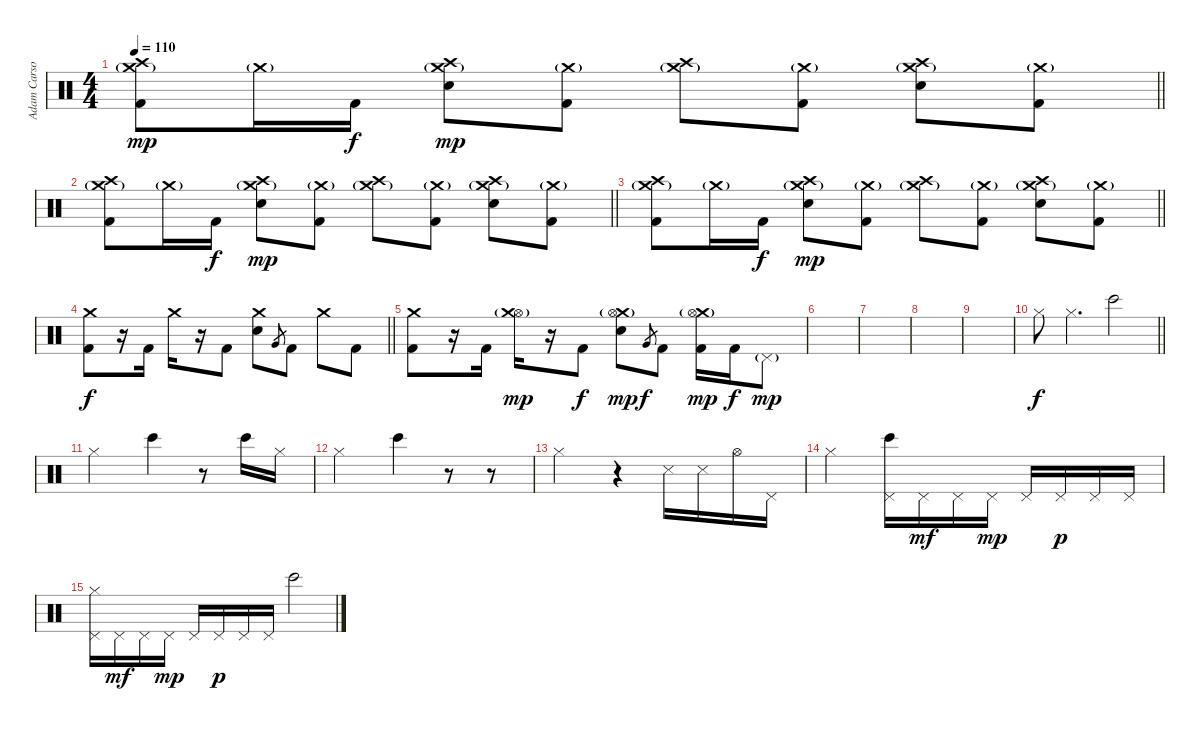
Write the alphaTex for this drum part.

\track ("Adam Carson" "Adam Carso") {instrument percussion}
\staff {score}
\articulation defaults
\ts (4 4)
\tempo 110
\clef neutral
\barLineRight lightlight
\ks c
("Crash high (hit)" "Crash medium (hit)"{g} "Kick (hit) 2").8{dy mp} "Crash medium (hit)"{g}.16 "Kick (hit) 2".16{dy f} ("Crash high (hit)" "Crash medium (hit)"{g} "Snare (hit) 2").8{dy mp} ("Crash medium (hit)"{g} "Kick (hit) 2").8 ("Crash high (hit)" "Crash medium (hit)"{g}).8 ("Crash medium (hit)"{g} "Kick (hit) 2").8 ("Crash high (hit)" "Crash medium (hit)"{g} "Snare (hit) 2").8 ("Crash medium (hit)"{g} "Kick (hit) 2").8 |
\barLineRight lightlight
("Crash high (hit)" "Crash medium (hit)"{g} "Kick (hit) 2").8 "Crash medium (hit)"{g}.16 "Kick (hit) 2".16{dy f} ("Crash high (hit)" "Crash medium (hit)"{g} "Snare (hit) 2").8{dy mp} ("Crash medium (hit)"{g} "Kick (hit) 2").8 ("Crash high (hit)" "Crash medium (hit)"{g}).8 ("Crash medium (hit)"{g} "Kick (hit) 2").8 ("Crash high (hit)" "Crash medium (hit)"{g} "Snare (hit) 2").8 ("Crash medium (hit)"{g} "Kick (hit) 2").8 |
\barLineRight lightlight
("Crash high (hit)" "Crash medium (hit)"{g} "Kick (hit) 2").8 "Crash medium (hit)"{g}.16 "Kick (hit) 2".16{dy f} ("Crash high (hit)" "Crash medium (hit)"{g} "Snare (hit) 2").8{dy mp} ("Crash medium (hit)"{g} "Kick (hit) 2").8 ("Crash high (hit)" "Crash medium (hit)"{g}).8 ("Crash medium (hit)"{g} "Kick (hit) 2").8 ("Crash high (hit)" "Crash medium (hit)"{g} "Snare (hit) 2").8 ("Crash medium (hit)"{g} "Kick (hit) 2").8 |
\barLineRight lightlight
("Crash medium (hit)" "Kick (hit) 2").8{dy f} r.16 "Kick (hit) 2".16 "Crash medium (hit)".16 r.16 "Kick (hit) 2".8 ("Crash medium (hit)" "Snare (hit) 2").8 "Very Low Tom (hit)".8{gr} "Kick (hit) 2".8 "Crash medium (hit)".8 "Kick (hit) 2".8 |
("Crash medium (hit)" "Kick (hit) 2").8 r.16 "Kick (hit) 2".16 ("Hi-Hat (open)"{g} "Crash medium (hit)").16{dy mp} r.16 "Kick (hit) 2".8{dy f} ("Crash medium (hit)"{g} "Hi-Hat (open)" "Snare (hit) 2").8{dy mp} "Very Low Tom (hit)".8{gr dy f} "Kick (hit) 2".8 ("Kick (hit) 2" "Crash medium (hit)"{g} "Hi-Hat (open)").16{dy mp} "Kick (hit) 2".16{dy f} "Pedal Hi-Hat (hit)"{g}.8{dy mp} |
|
|
|
|
\barLineRight lightlight "Hi-Hat (closed)".8{dy f} "Hi-Hat (closed)".4{d} "Bongo High (hit)".2
|
"Hi-Hat (closed)".2 "Bongo High (hit)".4 r.8 "Bongo High (hit)".16 "Hi-Hat (closed)".16 |
"Hi-Hat (closed)".2 "Bongo High (hit)".4 r.8 r.8 |
"Hi-Hat (closed)".2 r.4 "Snare (side stick) 3".16 "Snare (side stick) 3".16 "Hi-Hat (open)".16 "Pedal Hi-Hat (hit)".16 |
"Hi-Hat (closed)".2 ("Bongo High (hit)" "Pedal Hi-Hat (hit)").16 "Pedal Hi-Hat (hit)".16{dy mf} "Pedal Hi-Hat (hit)".16 "Pedal Hi-Hat (hit)".16{dy mp} "Pedal Hi-Hat (hit)".16 "Pedal Hi-Hat (hit)".16{dy p} "Pedal Hi-Hat (hit)".16 "Pedal Hi-Hat (hit)".16 |
("Hi-Hat (closed)" "Pedal Hi-Hat (hit)").16 "Pedal Hi-Hat (hit)".16{dy mf} "Pedal Hi-Hat (hit)".16 "Pedal Hi-Hat (hit)".16{dy mp} "Pedal Hi-Hat (hit)".16 "Pedal Hi-Hat (hit)".16{dy p} "Pedal Hi-Hat (hit)".16 "Pedal Hi-Hat (hit)".16 "Bongo High (hit)".2
